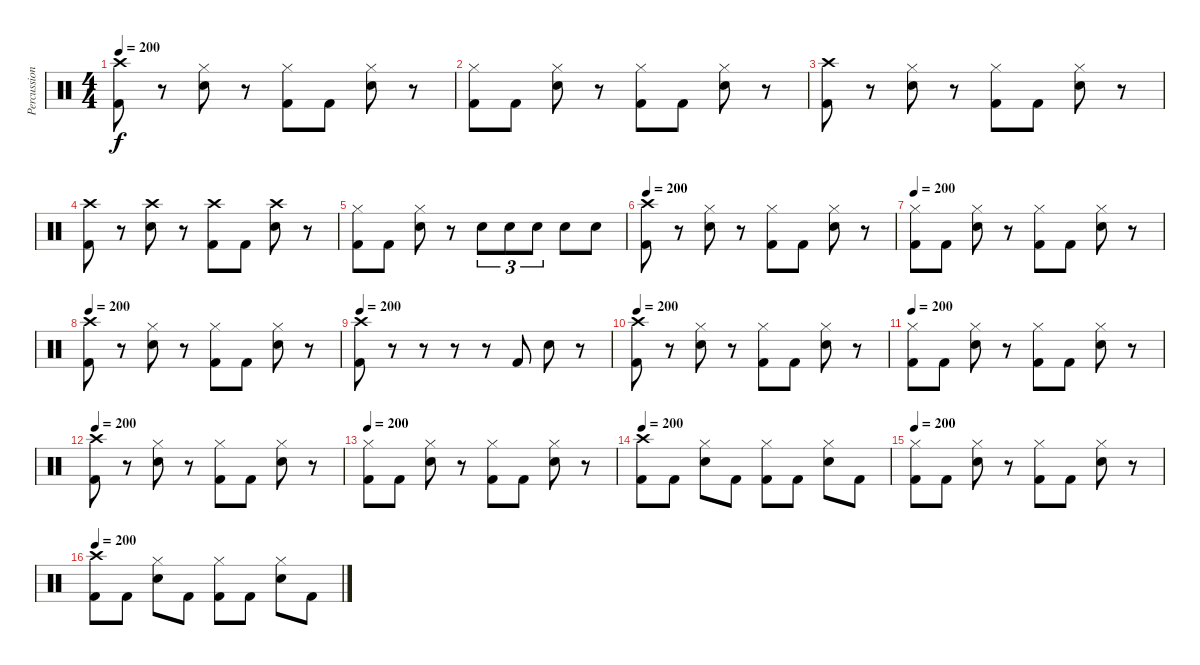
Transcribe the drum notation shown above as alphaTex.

\track ("Percussion" "Percussion") {instrument percussion}
\staff {score}
\articulation defaults
\ts (4 4)
\tempo 200
\clef neutral
\ks c
("Kick (hit) 2" "Crash high (hit)").8{dy f} r.8 ("Hi-Hat (closed)" "Snare (hit) 2").8 r.8 ("Kick (hit) 2" "Hi-Hat (closed)").8 "Kick (hit) 2".8 ("Snare (hit) 2" "Hi-Hat (closed)").8 r.8 |
("Kick (hit) 2" "Hi-Hat (closed)").8 "Kick (hit) 2".8 ("Snare (hit) 2" "Hi-Hat (closed)").8 r.8 ("Kick (hit) 2" "Hi-Hat (closed)").8 "Kick (hit) 2".8 ("Snare (hit) 2" "Hi-Hat (closed)").8 r.8 |
("Kick (hit) 2" "Crash high (hit)").8 r.8 ("Hi-Hat (closed)" "Snare (hit) 2").8 r.8 ("Kick (hit) 2" "Hi-Hat (closed)").8 "Kick (hit) 2".8 ("Snare (hit) 2" "Hi-Hat (closed)").8 r.8 |
("Kick (hit) 2" "Crash high (hit)").8 r.8 ("Crash high (hit)" "Snare (hit) 2").8 r.8 ("Crash high (hit)" "Kick (hit) 2").8 "Kick (hit) 2".8 ("Crash high (hit)" "Snare (hit) 2").8 r.8 |
("Kick (hit) 2" "Hi-Hat (closed)").8 "Kick (hit) 2".8 ("Snare (hit) 2" "Hi-Hat (closed)").8 r.8 "Snare (hit) 2".8{tu (3 2)} "Snare (hit) 2".8{tu (3 2)} "Snare (hit) 2".8{tu (3 2)} "Snare (hit) 2".8 "Snare (hit) 2".8 |
\tempo 200
("Kick (hit) 2" "Crash high (hit)").8 r.8 ("Hi-Hat (closed)" "Snare (hit) 2").8 r.8 ("Kick (hit) 2" "Hi-Hat (closed)").8 "Kick (hit) 2".8 ("Snare (hit) 2" "Hi-Hat (closed)").8 r.8 |
\tempo 200
("Kick (hit) 2" "Hi-Hat (closed)").8 "Kick (hit) 2".8 ("Snare (hit) 2" "Hi-Hat (closed)").8 r.8 ("Kick (hit) 2" "Hi-Hat (closed)").8 "Kick (hit) 2".8 ("Snare (hit) 2" "Hi-Hat (closed)").8 r.8 |
\tempo 200
("Kick (hit) 2" "Crash high (hit)").8 r.8 ("Hi-Hat (closed)" "Snare (hit) 2").8 r.8 ("Kick (hit) 2" "Hi-Hat (closed)").8 "Kick (hit) 2".8 ("Snare (hit) 2" "Hi-Hat (closed)").8 r.8 |
\tempo 200
("Crash high (hit)" "Kick (hit) 2").8 r.8 r.8 r.8 r.8 "Kick (hit) 2".8 "Snare (hit) 2".8 r.8 |
\tempo 200
("Kick (hit) 2" "Crash high (hit)").8 r.8 ("Hi-Hat (closed)" "Snare (hit) 2").8 r.8 ("Kick (hit) 2" "Hi-Hat (closed)").8 "Kick (hit) 2".8 ("Snare (hit) 2" "Hi-Hat (closed)").8 r.8 |
\tempo 200
("Kick (hit) 2" "Hi-Hat (closed)").8 "Kick (hit) 2".8 ("Snare (hit) 2" "Hi-Hat (closed)").8 r.8 ("Kick (hit) 2" "Hi-Hat (closed)").8 "Kick (hit) 2".8 ("Snare (hit) 2" "Hi-Hat (closed)").8 r.8 |
\tempo 200
("Kick (hit) 2" "Crash high (hit)").8 r.8 ("Hi-Hat (closed)" "Snare (hit) 2").8 r.8 ("Kick (hit) 2" "Hi-Hat (closed)").8 "Kick (hit) 2".8 ("Snare (hit) 2" "Hi-Hat (closed)").8 r.8 |
\tempo 200
("Kick (hit) 2" "Hi-Hat (closed)").8 "Kick (hit) 2".8 ("Snare (hit) 2" "Hi-Hat (closed)").8 r.8 ("Kick (hit) 2" "Hi-Hat (closed)").8 "Kick (hit) 2".8 ("Snare (hit) 2" "Hi-Hat (closed)").8 r.8 |
\tempo 200
("Kick (hit) 2" "Crash high (hit)").8 "Kick (hit) 2".8 ("Hi-Hat (closed)" "Snare (hit) 2").8 "Kick (hit) 2".8 ("Kick (hit) 2" "Hi-Hat (closed)").8 "Kick (hit) 2".8 ("Snare (hit) 2" "Hi-Hat (closed)").8 "Kick (hit) 2".8 |
\tempo 200
("Kick (hit) 2" "Hi-Hat (closed)").8 "Kick (hit) 2".8 ("Snare (hit) 2" "Hi-Hat (closed)").8 r.8 ("Kick (hit) 2" "Hi-Hat (closed)").8 "Kick (hit) 2".8 ("Snare (hit) 2" "Hi-Hat (closed)").8 r.8 |
\tempo 200
("Kick (hit) 2" "Crash high (hit)").8 "Kick (hit) 2".8 ("Hi-Hat (closed)" "Snare (hit) 2").8 "Kick (hit) 2".8 ("Kick (hit) 2" "Hi-Hat (closed)").8 "Kick (hit) 2".8 ("Snare (hit) 2" "Hi-Hat (closed)").8 "Kick (hit) 2".8
